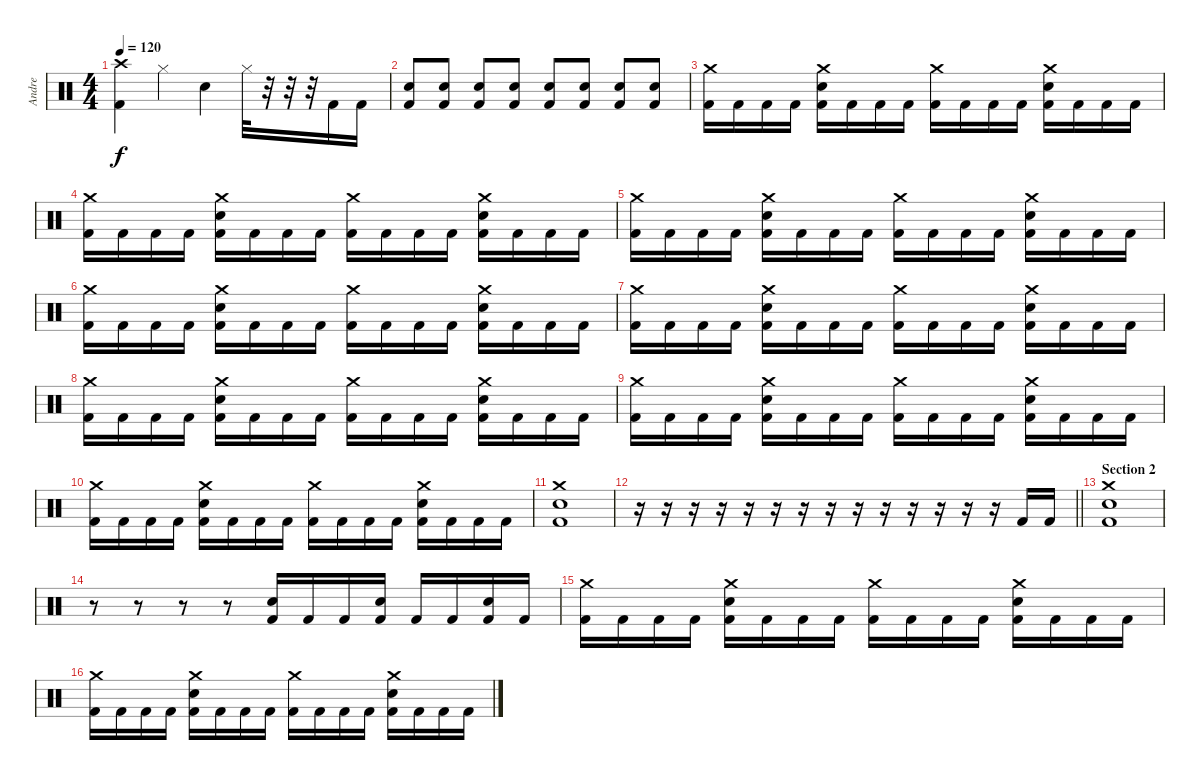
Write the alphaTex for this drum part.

\track ("Andre" "Andre") {instrument percussion}
\staff {score}
\articulation defaults
\ts (4 4)
\tempo 120
\clef neutral
\ks c
("Crash high (hit)" "Kick (hit) 2").4{dy f} "Hi-Hat (closed)".4 "Snare (hit) 2".4 "Hi-Hat (closed)".32 r.32 r.32 r.32 "Kick (hit) 2".16 "Kick (hit) 2".16 |
("Snare (hit) 2" "Kick (hit) 2").8 ("Snare (hit) 2" "Kick (hit) 2").8 ("Snare (hit) 2" "Kick (hit) 2").8 ("Snare (hit) 2" "Kick (hit) 2").8 ("Snare (hit) 2" "Kick (hit) 2").8 ("Snare (hit) 2" "Kick (hit) 2").8 ("Snare (hit) 2" "Kick (hit) 2").8 ("Snare (hit) 2" "Kick (hit) 2").8 |
("Crash medium (hit)" "Kick (hit) 2").16 "Kick (hit) 2".16 "Kick (hit) 2".16 "Kick (hit) 2".16 ("Crash medium (hit)" "Snare (hit) 2" "Kick (hit) 2").16 "Kick (hit) 2".16 "Kick (hit) 2".16 "Kick (hit) 2".16 ("Crash medium (hit)" "Kick (hit) 2").16 "Kick (hit) 2".16 "Kick (hit) 2".16 "Kick (hit) 2".16 ("Crash medium (hit)" "Snare (hit) 2" "Kick (hit) 2").16 "Kick (hit) 2".16 "Kick (hit) 2".16 "Kick (hit) 2".16 |
("Crash medium (hit)" "Kick (hit) 2").16 "Kick (hit) 2".16 "Kick (hit) 2".16 "Kick (hit) 2".16 ("Crash medium (hit)" "Snare (hit) 2" "Kick (hit) 2").16 "Kick (hit) 2".16 "Kick (hit) 2".16 "Kick (hit) 2".16 ("Crash medium (hit)" "Kick (hit) 2").16 "Kick (hit) 2".16 "Kick (hit) 2".16 "Kick (hit) 2".16 ("Crash medium (hit)" "Snare (hit) 2" "Kick (hit) 2").16 "Kick (hit) 2".16 "Kick (hit) 2".16 "Kick (hit) 2".16 |
("Crash medium (hit)" "Kick (hit) 2").16 "Kick (hit) 2".16 "Kick (hit) 2".16 "Kick (hit) 2".16 ("Crash medium (hit)" "Snare (hit) 2" "Kick (hit) 2").16 "Kick (hit) 2".16 "Kick (hit) 2".16 "Kick (hit) 2".16 ("Crash medium (hit)" "Kick (hit) 2").16 "Kick (hit) 2".16 "Kick (hit) 2".16 "Kick (hit) 2".16 ("Crash medium (hit)" "Snare (hit) 2" "Kick (hit) 2").16 "Kick (hit) 2".16 "Kick (hit) 2".16 "Kick (hit) 2".16 |
("Crash medium (hit)" "Kick (hit) 2").16 "Kick (hit) 2".16 "Kick (hit) 2".16 "Kick (hit) 2".16 ("Crash medium (hit)" "Snare (hit) 2" "Kick (hit) 2").16 "Kick (hit) 2".16 "Kick (hit) 2".16 "Kick (hit) 2".16 ("Crash medium (hit)" "Kick (hit) 2").16 "Kick (hit) 2".16 "Kick (hit) 2".16 "Kick (hit) 2".16 ("Crash medium (hit)" "Snare (hit) 2" "Kick (hit) 2").16 "Kick (hit) 2".16 "Kick (hit) 2".16 "Kick (hit) 2".16 |
("Crash medium (hit)" "Kick (hit) 2").16 "Kick (hit) 2".16 "Kick (hit) 2".16 "Kick (hit) 2".16 ("Crash medium (hit)" "Snare (hit) 2" "Kick (hit) 2").16 "Kick (hit) 2".16 "Kick (hit) 2".16 "Kick (hit) 2".16 ("Crash medium (hit)" "Kick (hit) 2").16 "Kick (hit) 2".16 "Kick (hit) 2".16 "Kick (hit) 2".16 ("Crash medium (hit)" "Snare (hit) 2" "Kick (hit) 2").16 "Kick (hit) 2".16 "Kick (hit) 2".16 "Kick (hit) 2".16 |
("Crash medium (hit)" "Kick (hit) 2").16 "Kick (hit) 2".16 "Kick (hit) 2".16 "Kick (hit) 2".16 ("Crash medium (hit)" "Snare (hit) 2" "Kick (hit) 2").16 "Kick (hit) 2".16 "Kick (hit) 2".16 "Kick (hit) 2".16 ("Crash medium (hit)" "Kick (hit) 2").16 "Kick (hit) 2".16 "Kick (hit) 2".16 "Kick (hit) 2".16 ("Crash medium (hit)" "Snare (hit) 2" "Kick (hit) 2").16 "Kick (hit) 2".16 "Kick (hit) 2".16 "Kick (hit) 2".16 |
("Crash medium (hit)" "Kick (hit) 2").16 "Kick (hit) 2".16 "Kick (hit) 2".16 "Kick (hit) 2".16 ("Crash medium (hit)" "Snare (hit) 2" "Kick (hit) 2").16 "Kick (hit) 2".16 "Kick (hit) 2".16 "Kick (hit) 2".16 ("Crash medium (hit)" "Kick (hit) 2").16 "Kick (hit) 2".16 "Kick (hit) 2".16 "Kick (hit) 2".16 ("Crash medium (hit)" "Snare (hit) 2" "Kick (hit) 2").16 "Kick (hit) 2".16 "Kick (hit) 2".16 "Kick (hit) 2".16 |
("Crash medium (hit)" "Kick (hit) 2").16 "Kick (hit) 2".16 "Kick (hit) 2".16 "Kick (hit) 2".16 ("Crash medium (hit)" "Snare (hit) 2" "Kick (hit) 2").16 "Kick (hit) 2".16 "Kick (hit) 2".16 "Kick (hit) 2".16 ("Crash medium (hit)" "Kick (hit) 2").16 "Kick (hit) 2".16 "Kick (hit) 2".16 "Kick (hit) 2".16 ("Crash medium (hit)" "Snare (hit) 2" "Kick (hit) 2").16 "Kick (hit) 2".16 "Kick (hit) 2".16 "Kick (hit) 2".16 |
("Crash medium (hit)" "Snare (hit) 2" "Kick (hit) 2").1 |
\barLineRight lightlight
r.16 r.16 r.16 r.16 r.16 r.16 r.16 r.16 r.16 r.16 r.16 r.16 r.16 r.16 "Kick (hit) 2".16 "Kick (hit) 2".16 |
\section ("" "Section 2")
("Crash medium (hit)" "Snare (hit) 2" "Kick (hit) 2").1 |
r.8 r.8 r.8 r.8 ("Snare (hit) 2" "Kick (hit) 2").16 "Kick (hit) 2".16 "Kick (hit) 2".16 ("Snare (hit) 2" "Kick (hit) 2").16 "Kick (hit) 2".16 "Kick (hit) 2".16 ("Snare (hit) 2" "Kick (hit) 2").16 "Kick (hit) 2".16 |
("Crash medium (hit)" "Kick (hit) 2").16 "Kick (hit) 2".16 "Kick (hit) 2".16 "Kick (hit) 2".16 ("Crash medium (hit)" "Snare (hit) 2" "Kick (hit) 2").16 "Kick (hit) 2".16 "Kick (hit) 2".16 "Kick (hit) 2".16 ("Crash medium (hit)" "Kick (hit) 2").16 "Kick (hit) 2".16 "Kick (hit) 2".16 "Kick (hit) 2".16 ("Crash medium (hit)" "Snare (hit) 2" "Kick (hit) 2").16 "Kick (hit) 2".16 "Kick (hit) 2".16 "Kick (hit) 2".16 |
("Crash medium (hit)" "Kick (hit) 2").16 "Kick (hit) 2".16 "Kick (hit) 2".16 "Kick (hit) 2".16 ("Crash medium (hit)" "Snare (hit) 2" "Kick (hit) 2").16 "Kick (hit) 2".16 "Kick (hit) 2".16 "Kick (hit) 2".16 ("Crash medium (hit)" "Kick (hit) 2").16 "Kick (hit) 2".16 "Kick (hit) 2".16 "Kick (hit) 2".16 ("Crash medium (hit)" "Snare (hit) 2" "Kick (hit) 2").16 "Kick (hit) 2".16 "Kick (hit) 2".16 "Kick (hit) 2".16
